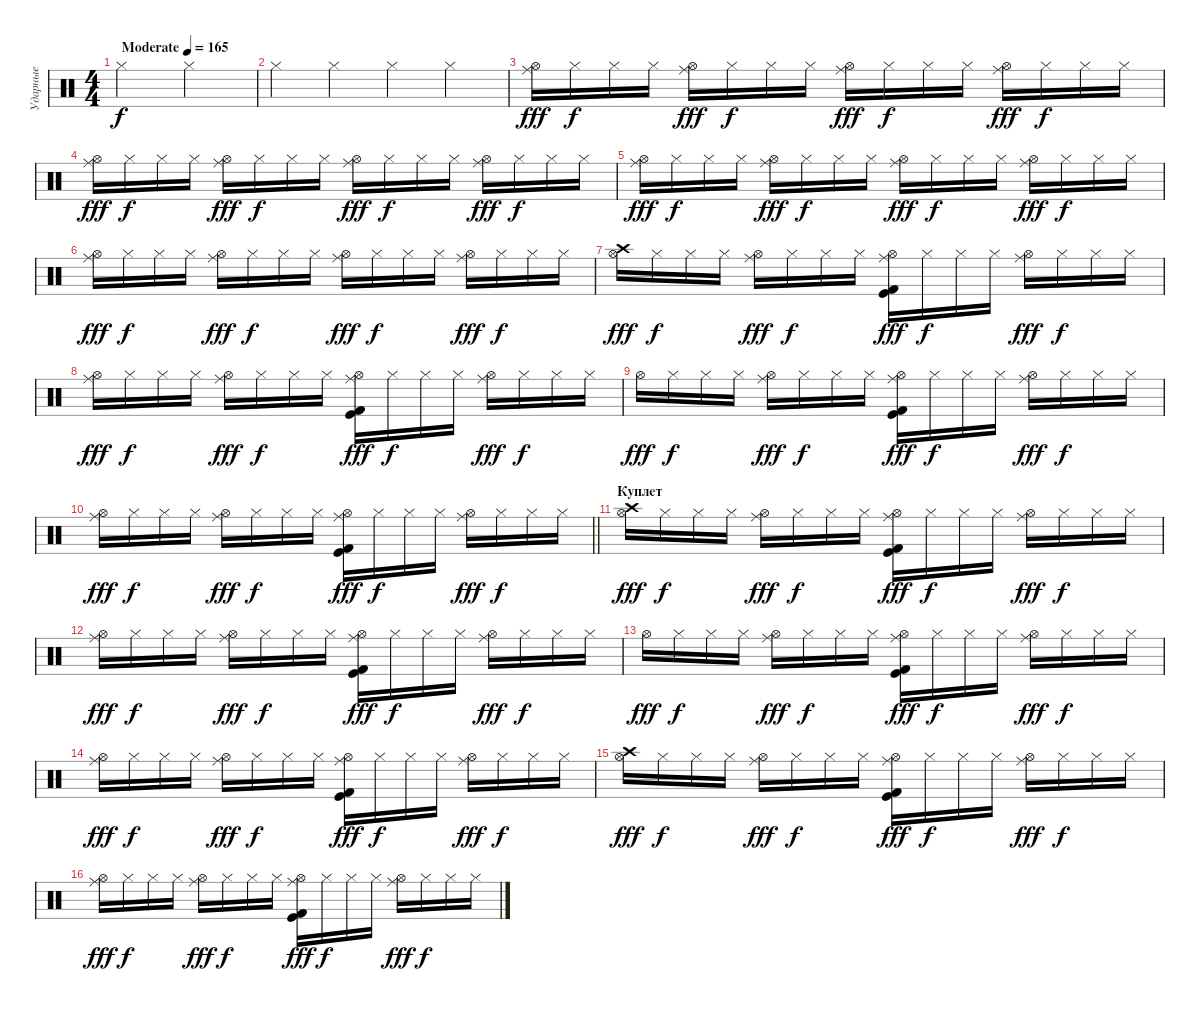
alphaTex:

\track ("Ударные" "Ударные") {instrument percussion}
\staff {score}
\articulation defaults
\ts (4 4)
\tempo (165 "Moderate")
\clef neutral
\ks c "Hi-Hat (closed)".2{dy f} "Hi-Hat (closed)".2
|
"Hi-Hat (closed)".4 "Hi-Hat (closed)".4 "Hi-Hat (closed)".4 "Hi-Hat (closed)".4 |
("Hi-Hat (open)" "Ride (middle)").16{dy fff} "Hi-Hat (closed)".16{dy f} "Hi-Hat (closed)".16 "Hi-Hat (closed)".16 ("Hi-Hat (open)" "Ride (middle)").16{dy fff} "Hi-Hat (closed)".16{dy f} "Hi-Hat (closed)".16 "Hi-Hat (closed)".16 ("Hi-Hat (open)" "Ride (middle)").16{dy fff} "Hi-Hat (closed)".16{dy f} "Hi-Hat (closed)".16 "Hi-Hat (closed)".16 ("Hi-Hat (open)" "Ride (middle)").16{dy fff} "Hi-Hat (closed)".16{dy f} "Hi-Hat (closed)".16 "Hi-Hat (closed)".16 |
("Hi-Hat (open)" "Ride (middle)").16{dy fff} "Hi-Hat (closed)".16{dy f} "Hi-Hat (closed)".16 "Hi-Hat (closed)".16 ("Hi-Hat (open)" "Ride (middle)").16{dy fff} "Hi-Hat (closed)".16{dy f} "Hi-Hat (closed)".16 "Hi-Hat (closed)".16 ("Hi-Hat (open)" "Ride (middle)").16{dy fff} "Hi-Hat (closed)".16{dy f} "Hi-Hat (closed)".16 "Hi-Hat (closed)".16 ("Hi-Hat (open)" "Ride (middle)").16{dy fff} "Hi-Hat (closed)".16{dy f} "Hi-Hat (closed)".16 "Hi-Hat (closed)".16 |
("Hi-Hat (open)" "Ride (middle)").16{dy fff} "Hi-Hat (closed)".16{dy f} "Hi-Hat (closed)".16 "Hi-Hat (closed)".16 ("Hi-Hat (open)" "Ride (middle)").16{dy fff} "Hi-Hat (closed)".16{dy f} "Hi-Hat (closed)".16 "Hi-Hat (closed)".16 ("Hi-Hat (open)" "Ride (middle)").16{dy fff} "Hi-Hat (closed)".16{dy f} "Hi-Hat (closed)".16 "Hi-Hat (closed)".16 ("Hi-Hat (open)" "Ride (middle)").16{dy fff} "Hi-Hat (closed)".16{dy f} "Hi-Hat (closed)".16 "Hi-Hat (closed)".16 |
("Hi-Hat (open)" "Ride (middle)").16{dy fff} "Hi-Hat (closed)".16{dy f} "Hi-Hat (closed)".16 "Hi-Hat (closed)".16 ("Hi-Hat (open)" "Ride (middle)").16{dy fff} "Hi-Hat (closed)".16{dy f} "Hi-Hat (closed)".16 "Hi-Hat (closed)".16 ("Hi-Hat (open)" "Ride (middle)").16{dy fff} "Hi-Hat (closed)".16{dy f} "Hi-Hat (closed)".16 "Hi-Hat (closed)".16 ("Hi-Hat (open)" "Ride (middle)").16{dy fff} "Hi-Hat (closed)".16{dy f} "Hi-Hat (closed)".16 "Hi-Hat (closed)".16 |
("Hi-Hat (open)" "Crash high (hit)").16{dy fff} "Hi-Hat (closed)".16{dy f} "Hi-Hat (closed)".16 "Hi-Hat (closed)".16 ("Hi-Hat (open)" "Ride (middle)").16{dy fff} "Hi-Hat (closed)".16{dy f} "Hi-Hat (closed)".16 "Hi-Hat (closed)".16 ("Hi-Hat (open)" "Ride (middle)" "Kick (hit)" "Kick (hit) 2").16{dy fff} "Hi-Hat (closed)".16{dy f} "Hi-Hat (closed)".16 "Hi-Hat (closed)".16 ("Hi-Hat (open)" "Ride (middle)").16{dy fff} "Hi-Hat (closed)".16{dy f} "Hi-Hat (closed)".16 "Hi-Hat (closed)".16 |
("Hi-Hat (open)" "Ride (middle)").16{dy fff} "Hi-Hat (closed)".16{dy f} "Hi-Hat (closed)".16 "Hi-Hat (closed)".16 ("Hi-Hat (open)" "Ride (middle)").16{dy fff} "Hi-Hat (closed)".16{dy f} "Hi-Hat (closed)".16 "Hi-Hat (closed)".16 ("Hi-Hat (open)" "Ride (middle)" "Kick (hit)" "Kick (hit) 2").16{dy fff} "Hi-Hat (closed)".16{dy f} "Hi-Hat (closed)".16 "Hi-Hat (closed)".16 ("Hi-Hat (open)" "Ride (middle)").16{dy fff} "Hi-Hat (closed)".16{dy f} "Hi-Hat (closed)".16 "Hi-Hat (closed)".16 |
"Hi-Hat (open)".16{dy fff} "Hi-Hat (closed)".16{dy f} "Hi-Hat (closed)".16 "Hi-Hat (closed)".16 ("Hi-Hat (open)" "Ride (middle)").16{dy fff} "Hi-Hat (closed)".16{dy f} "Hi-Hat (closed)".16 "Hi-Hat (closed)".16 ("Hi-Hat (open)" "Ride (middle)" "Kick (hit)" "Kick (hit) 2").16{dy fff} "Hi-Hat (closed)".16{dy f} "Hi-Hat (closed)".16 "Hi-Hat (closed)".16 ("Hi-Hat (open)" "Ride (middle)").16{dy fff} "Hi-Hat (closed)".16{dy f} "Hi-Hat (closed)".16 "Hi-Hat (closed)".16 |
\barLineRight lightlight
("Hi-Hat (open)" "Ride (middle)").16{dy fff} "Hi-Hat (closed)".16{dy f} "Hi-Hat (closed)".16 "Hi-Hat (closed)".16 ("Hi-Hat (open)" "Ride (middle)").16{dy fff} "Hi-Hat (closed)".16{dy f} "Hi-Hat (closed)".16 "Hi-Hat (closed)".16 ("Hi-Hat (open)" "Ride (middle)" "Kick (hit)" "Kick (hit) 2").16{dy fff} "Hi-Hat (closed)".16{dy f} "Hi-Hat (closed)".16 "Hi-Hat (closed)".16 ("Hi-Hat (open)" "Ride (middle)").16{dy fff} "Hi-Hat (closed)".16{dy f} "Hi-Hat (closed)".16 "Hi-Hat (closed)".16 |
\section ("" "Куплет")
("Hi-Hat (open)" "Crash high (hit)").16{dy fff} "Hi-Hat (closed)".16{dy f} "Hi-Hat (closed)".16 "Hi-Hat (closed)".16 ("Hi-Hat (open)" "Ride (middle)").16{dy fff} "Hi-Hat (closed)".16{dy f} "Hi-Hat (closed)".16 "Hi-Hat (closed)".16 ("Hi-Hat (open)" "Ride (middle)" "Kick (hit)" "Kick (hit) 2").16{dy fff} "Hi-Hat (closed)".16{dy f} "Hi-Hat (closed)".16 "Hi-Hat (closed)".16 ("Hi-Hat (open)" "Ride (middle)").16{dy fff} "Hi-Hat (closed)".16{dy f} "Hi-Hat (closed)".16 "Hi-Hat (closed)".16 |
("Hi-Hat (open)" "Ride (middle)").16{dy fff} "Hi-Hat (closed)".16{dy f} "Hi-Hat (closed)".16 "Hi-Hat (closed)".16 ("Hi-Hat (open)" "Ride (middle)").16{dy fff} "Hi-Hat (closed)".16{dy f} "Hi-Hat (closed)".16 "Hi-Hat (closed)".16 ("Hi-Hat (open)" "Ride (middle)" "Kick (hit)" "Kick (hit) 2").16{dy fff} "Hi-Hat (closed)".16{dy f} "Hi-Hat (closed)".16 "Hi-Hat (closed)".16 ("Hi-Hat (open)" "Ride (middle)").16{dy fff} "Hi-Hat (closed)".16{dy f} "Hi-Hat (closed)".16 "Hi-Hat (closed)".16 |
"Hi-Hat (open)".16{dy fff} "Hi-Hat (closed)".16{dy f} "Hi-Hat (closed)".16 "Hi-Hat (closed)".16 ("Hi-Hat (open)" "Ride (middle)").16{dy fff} "Hi-Hat (closed)".16{dy f} "Hi-Hat (closed)".16 "Hi-Hat (closed)".16 ("Hi-Hat (open)" "Ride (middle)" "Kick (hit)" "Kick (hit) 2").16{dy fff} "Hi-Hat (closed)".16{dy f} "Hi-Hat (closed)".16 "Hi-Hat (closed)".16 ("Hi-Hat (open)" "Ride (middle)").16{dy fff} "Hi-Hat (closed)".16{dy f} "Hi-Hat (closed)".16 "Hi-Hat (closed)".16 |
("Hi-Hat (open)" "Ride (middle)").16{dy fff} "Hi-Hat (closed)".16{dy f} "Hi-Hat (closed)".16 "Hi-Hat (closed)".16 ("Hi-Hat (open)" "Ride (middle)").16{dy fff} "Hi-Hat (closed)".16{dy f} "Hi-Hat (closed)".16 "Hi-Hat (closed)".16 ("Hi-Hat (open)" "Ride (middle)" "Kick (hit)" "Kick (hit) 2").16{dy fff} "Hi-Hat (closed)".16{dy f} "Hi-Hat (closed)".16 "Hi-Hat (closed)".16 ("Hi-Hat (open)" "Ride (middle)").16{dy fff} "Hi-Hat (closed)".16{dy f} "Hi-Hat (closed)".16 "Hi-Hat (closed)".16 |
("Hi-Hat (open)" "Crash high (hit)").16{dy fff} "Hi-Hat (closed)".16{dy f} "Hi-Hat (closed)".16 "Hi-Hat (closed)".16 ("Hi-Hat (open)" "Ride (middle)").16{dy fff} "Hi-Hat (closed)".16{dy f} "Hi-Hat (closed)".16 "Hi-Hat (closed)".16 ("Hi-Hat (open)" "Ride (middle)" "Kick (hit)" "Kick (hit) 2").16{dy fff} "Hi-Hat (closed)".16{dy f} "Hi-Hat (closed)".16 "Hi-Hat (closed)".16 ("Hi-Hat (open)" "Ride (middle)").16{dy fff} "Hi-Hat (closed)".16{dy f} "Hi-Hat (closed)".16 "Hi-Hat (closed)".16 |
("Hi-Hat (open)" "Ride (middle)").16{dy fff} "Hi-Hat (closed)".16{dy f} "Hi-Hat (closed)".16 "Hi-Hat (closed)".16 ("Hi-Hat (open)" "Ride (middle)").16{dy fff} "Hi-Hat (closed)".16{dy f} "Hi-Hat (closed)".16 "Hi-Hat (closed)".16 ("Hi-Hat (open)" "Ride (middle)" "Kick (hit)" "Kick (hit) 2").16{dy fff} "Hi-Hat (closed)".16{dy f} "Hi-Hat (closed)".16 "Hi-Hat (closed)".16 ("Hi-Hat (open)" "Ride (middle)").16{dy fff} "Hi-Hat (closed)".16{dy f} "Hi-Hat (closed)".16 "Hi-Hat (closed)".16
